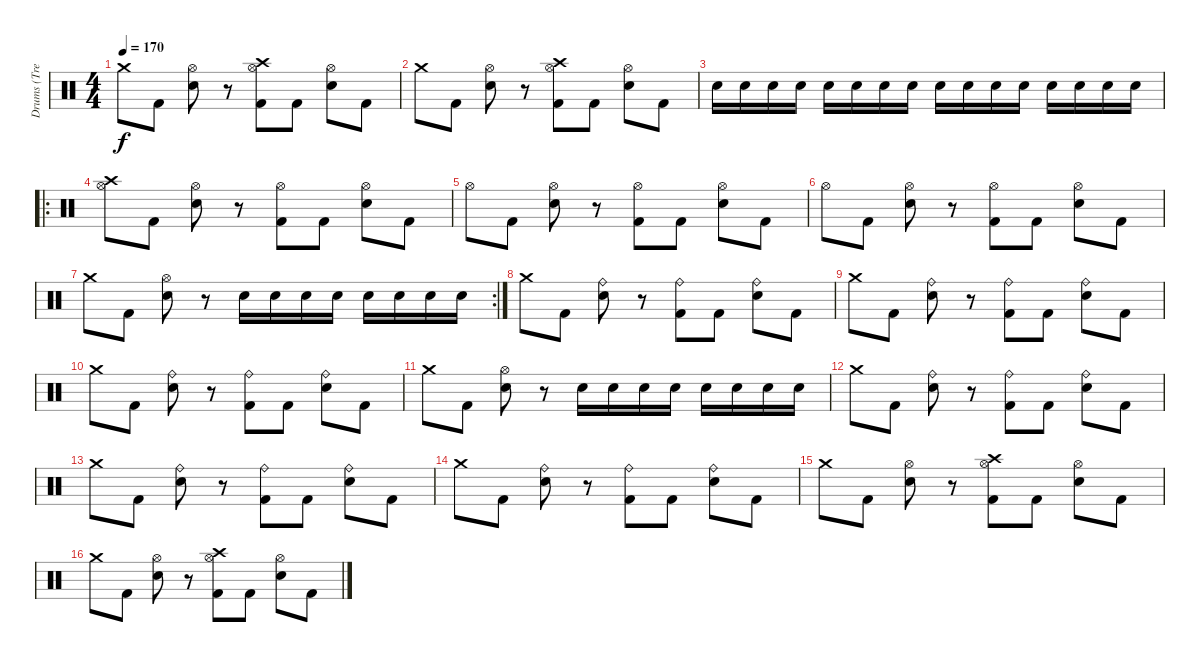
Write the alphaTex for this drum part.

\track ("Drums (Tre Cool)" "Drums (Tre") {instrument percussion}
\staff {score}
\articulation defaults
\ts (4 4)
\tempo 170
\clef neutral
\ks c "Crash medium (hit)".8{dy f} "Kick (hit) 2".8
("Hi-Hat (open)" "Electric Snare (hit)").8 r.8 ("Crash high (hit)" "Hi-Hat (open)" "Kick (hit) 2").8 "Kick (hit) 2".8 ("Hi-Hat (open)" "Electric Snare (hit)").8 "Kick (hit) 2".8 |
"Crash medium (hit)".8 "Kick (hit) 2".8 ("Hi-Hat (open)" "Electric Snare (hit)").8 r.8 ("Crash high (hit)" "Hi-Hat (open)" "Kick (hit) 2").8 "Kick (hit) 2".8 ("Hi-Hat (open)" "Electric Snare (hit)").8 "Kick (hit) 2".8 |
"Electric Snare (hit)".16 "Electric Snare (hit)".16 "Electric Snare (hit)".16 "Electric Snare (hit)".16 "Electric Snare (hit)".16 "Electric Snare (hit)".16 "Electric Snare (hit)".16 "Electric Snare (hit)".16 "Electric Snare (hit)".16 "Electric Snare (hit)".16 "Electric Snare (hit)".16 "Electric Snare (hit)".16 "Electric Snare (hit)".16 "Electric Snare (hit)".16 "Electric Snare (hit)".16 "Electric Snare (hit)".16 |
\ro
("Crash high (hit)" "Hi-Hat (open)").8 "Kick (hit) 2".8 ("Hi-Hat (open)" "Electric Snare (hit)").8 r.8 ("Hi-Hat (open)" "Kick (hit) 2").8 "Kick (hit) 2".8 ("Hi-Hat (open)" "Electric Snare (hit)").8 "Kick (hit) 2".8 |
"Hi-Hat (open)".8 "Kick (hit) 2".8 ("Hi-Hat (open)" "Electric Snare (hit)").8 r.8 ("Hi-Hat (open)" "Kick (hit) 2").8 "Kick (hit) 2".8 ("Hi-Hat (open)" "Electric Snare (hit)").8 "Kick (hit) 2".8 |
"Hi-Hat (open)".8 "Kick (hit) 2".8 ("Hi-Hat (open)" "Electric Snare (hit)").8 r.8 ("Hi-Hat (open)" "Kick (hit) 2").8 "Kick (hit) 2".8 ("Hi-Hat (open)" "Electric Snare (hit)").8 "Kick (hit) 2".8 |
\rc 2 "Crash medium (hit)".8 "Kick (hit) 2".8
("Hi-Hat (open)" "Electric Snare (hit)").8 r.8 "Electric Snare (hit)".16 "Electric Snare (hit)".16 "Electric Snare (hit)".16 "Electric Snare (hit)".16 "Electric Snare (hit)".16 "Electric Snare (hit)".16 "Electric Snare (hit)".16 "Electric Snare (hit)".16 |
"Crash medium (hit)".8 "Kick (hit) 2".8 ("Ride (bell)" "Electric Snare (hit)").8 r.8 ("Ride (bell)" "Kick (hit) 2").8 "Kick (hit) 2".8 ("Ride (bell)" "Electric Snare (hit)").8 "Kick (hit) 2".8 |
"Crash medium (hit)".8 "Kick (hit) 2".8 ("Ride (bell)" "Electric Snare (hit)").8 r.8 ("Ride (bell)" "Kick (hit) 2").8 "Kick (hit) 2".8 ("Ride (bell)" "Electric Snare (hit)").8 "Kick (hit) 2".8 |
"Crash medium (hit)".8 "Kick (hit) 2".8 ("Ride (bell)" "Electric Snare (hit)").8 r.8 ("Ride (bell)" "Kick (hit) 2").8 "Kick (hit) 2".8 ("Ride (bell)" "Electric Snare (hit)").8 "Kick (hit) 2".8 |
"Crash medium (hit)".8 "Kick (hit) 2".8 ("Hi-Hat (open)" "Electric Snare (hit)").8 r.8 "Electric Snare (hit)".16 "Electric Snare (hit)".16 "Electric Snare (hit)".16 "Electric Snare (hit)".16 "Electric Snare (hit)".16 "Electric Snare (hit)".16 "Electric Snare (hit)".16 "Electric Snare (hit)".16 |
"Crash medium (hit)".8 "Kick (hit) 2".8 ("Ride (bell)" "Electric Snare (hit)").8 r.8 ("Ride (bell)" "Kick (hit) 2").8 "Kick (hit) 2".8 ("Ride (bell)" "Electric Snare (hit)").8 "Kick (hit) 2".8 |
"Crash medium (hit)".8 "Kick (hit) 2".8 ("Ride (bell)" "Electric Snare (hit)").8 r.8 ("Ride (bell)" "Kick (hit) 2").8 "Kick (hit) 2".8 ("Ride (bell)" "Electric Snare (hit)").8 "Kick (hit) 2".8 |
"Crash medium (hit)".8 "Kick (hit) 2".8 ("Ride (bell)" "Electric Snare (hit)").8 r.8 ("Ride (bell)" "Kick (hit) 2").8 "Kick (hit) 2".8 ("Ride (bell)" "Electric Snare (hit)").8 "Kick (hit) 2".8 |
"Crash medium (hit)".8 "Kick (hit) 2".8 ("Hi-Hat (open)" "Electric Snare (hit)").8 r.8 ("Crash high (hit)" "Hi-Hat (open)" "Kick (hit) 2").8 "Kick (hit) 2".8 ("Hi-Hat (open)" "Electric Snare (hit)").8 "Kick (hit) 2".8 |
"Crash medium (hit)".8 "Kick (hit) 2".8 ("Hi-Hat (open)" "Electric Snare (hit)").8 r.8 ("Crash high (hit)" "Hi-Hat (open)" "Kick (hit) 2").8 "Kick (hit) 2".8 ("Hi-Hat (open)" "Electric Snare (hit)").8 "Kick (hit) 2".8
